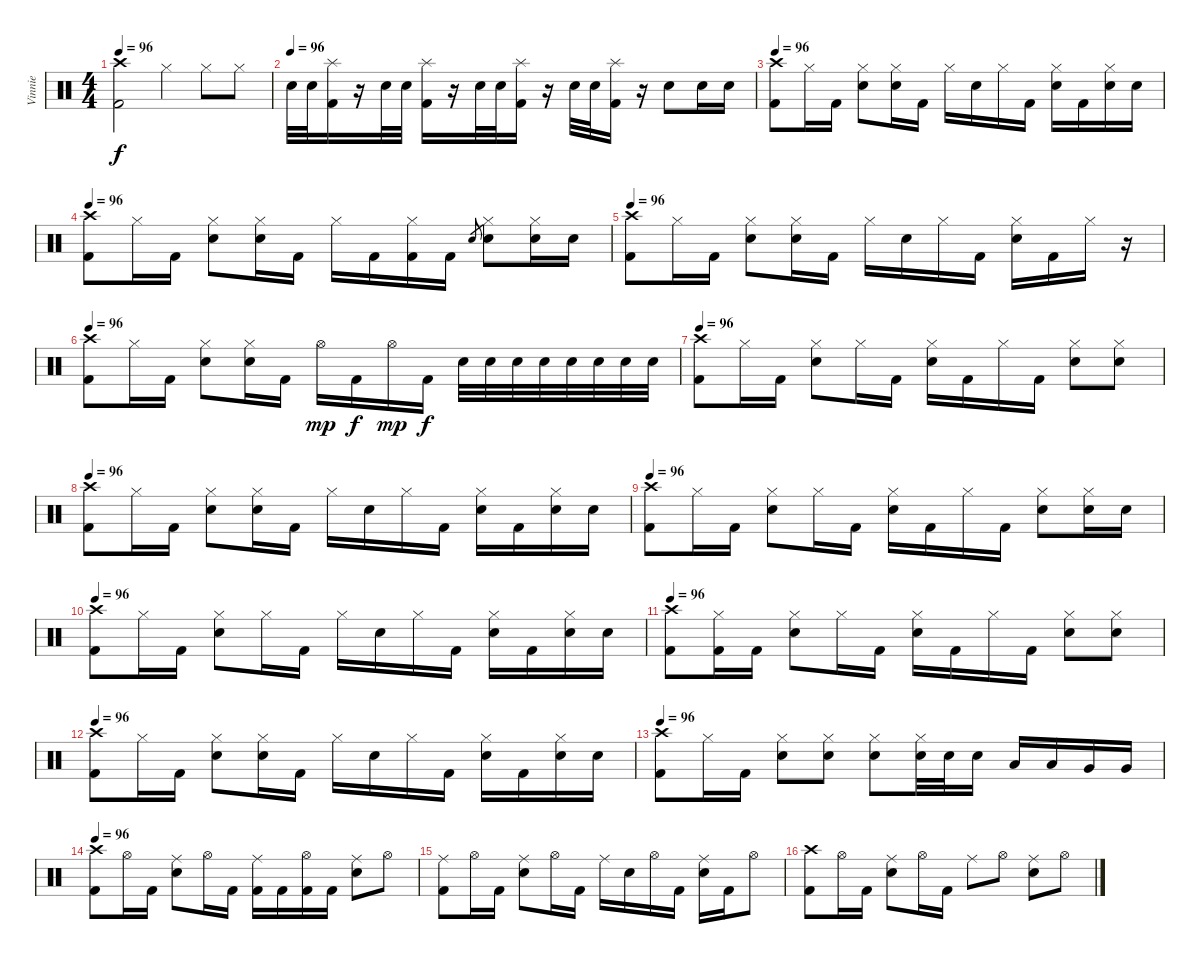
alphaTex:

\track ("Vinnie" "Vinnie") {instrument percussion}
\staff {score}
\articulation defaults
\ts (4 4)
\tempo 96
\clef neutral
\ks c
("Crash high (hit)" "Kick (hit) 2").2{dy f} "Hi-Hat (closed)".4 "Hi-Hat (closed)".8 "Hi-Hat (closed)".8 |
\tempo (96)
"Electric Snare (hit)".32 "Electric Snare (hit)".32 ("Splash (hit)" "Kick (hit) 2").16 r.16 "Electric Snare (hit)".32 "Electric Snare (hit)".32 ("Splash (hit)" "Kick (hit) 2").16 r.16 "Electric Snare (hit)".32 "Electric Snare (hit)".32 ("Splash (hit)" "Kick (hit) 2").16 r.16 "Electric Snare (hit)".32 "Electric Snare (hit)".32 ("Splash (hit)" "Kick (hit) 2").16 r.16 "Electric Snare (hit)".8 "Electric Snare (hit)".16 "Electric Snare (hit)".16 |
\tempo 96
("Crash high (hit)" "Kick (hit) 2").8 "Hi-Hat (closed)".16 "Kick (hit) 2".16 ("Hi-Hat (closed)" "Electric Snare (hit)").8 ("Hi-Hat (closed)" "Electric Snare (hit)").16 "Kick (hit) 2".16 "Hi-Hat (closed)".16 "Electric Snare (hit)".16 "Hi-Hat (closed)".16 "Kick (hit) 2".16 ("Hi-Hat (closed)" "Electric Snare (hit)").16 "Kick (hit) 2".16 ("Hi-Hat (closed)" "Electric Snare (hit)").16 "Electric Snare (hit)".16 |
\tempo 96
("Crash high (hit)" "Kick (hit) 2").8 "Hi-Hat (closed)".16 "Kick (hit) 2".16 ("Hi-Hat (closed)" "Electric Snare (hit)").8 ("Hi-Hat (closed)" "Electric Snare (hit)").16 "Kick (hit) 2".16 "Hi-Hat (closed)".16 "Kick (hit) 2".16 ("Hi-Hat (closed)" "Kick (hit) 2").16 "Kick (hit) 2".16 "Electric Snare (hit)".8{gr} ("Hi-Hat (closed)" "Electric Snare (hit)").8 ("Hi-Hat (closed)" "Electric Snare (hit)").16 "Electric Snare (hit)".16 |
\tempo 96
("Crash high (hit)" "Kick (hit) 2").8 "Hi-Hat (closed)".16 "Kick (hit) 2".16 ("Hi-Hat (closed)" "Electric Snare (hit)").8 ("Hi-Hat (closed)" "Electric Snare (hit)").16 "Kick (hit) 2".16 "Hi-Hat (closed)".16 "Electric Snare (hit)".16 "Hi-Hat (closed)".16 "Kick (hit) 2".16 ("Hi-Hat (closed)" "Electric Snare (hit)").16 "Kick (hit) 2".16 "Hi-Hat (closed)".16 r.16 |
\tempo 96
("Crash high (hit)" "Kick (hit) 2").8 "Hi-Hat (closed)".16 "Kick (hit) 2".16 ("Hi-Hat (closed)" "Electric Snare (hit)").8 ("Hi-Hat (closed)" "Electric Snare (hit)").16 "Kick (hit) 2".16 "Hi-Hat (open)".16{dy mp} "Kick (hit) 2".16{dy f} "Hi-Hat (open)".16{dy mp} "Kick (hit) 2".16{dy f} "Electric Snare (hit)".32 "Electric Snare (hit)".32 "Electric Snare (hit)".32 "Electric Snare (hit)".32 "Electric Snare (hit)".32 "Electric Snare (hit)".32 "Electric Snare (hit)".32 "Electric Snare (hit)".32 |
\tempo 96
("Crash high (hit)" "Kick (hit) 2").8 "Hi-Hat (closed)".16 "Kick (hit) 2".16 ("Hi-Hat (closed)" "Electric Snare (hit)").8 "Hi-Hat (closed)".16 "Kick (hit) 2".16 ("Hi-Hat (closed)" "Electric Snare (hit)").16 "Kick (hit) 2".16 "Hi-Hat (closed)".16 "Kick (hit) 2".16 ("Hi-Hat (closed)" "Electric Snare (hit)").8 ("Hi-Hat (closed)" "Electric Snare (hit)").8 |
\tempo 96
("Crash high (hit)" "Kick (hit) 2").8 "Hi-Hat (closed)".16 "Kick (hit) 2".16 ("Hi-Hat (closed)" "Electric Snare (hit)").8 ("Hi-Hat (closed)" "Electric Snare (hit)").16 "Kick (hit) 2".16 "Hi-Hat (closed)".16 "Electric Snare (hit)".16 "Hi-Hat (closed)".16 "Kick (hit) 2".16 ("Hi-Hat (closed)" "Electric Snare (hit)").16 "Kick (hit) 2".16 ("Hi-Hat (closed)" "Electric Snare (hit)").16 "Electric Snare (hit)".16 |
\tempo 96
("Crash high (hit)" "Kick (hit) 2").8 "Hi-Hat (closed)".16 "Kick (hit) 2".16 ("Hi-Hat (closed)" "Electric Snare (hit)").8 "Hi-Hat (closed)".16 "Kick (hit) 2".16 ("Hi-Hat (closed)" "Electric Snare (hit)").16 "Kick (hit) 2".16 "Hi-Hat (closed)".16 "Kick (hit) 2".16 ("Hi-Hat (closed)" "Electric Snare (hit)").8 ("Hi-Hat (closed)" "Electric Snare (hit)").16 "Electric Snare (hit)".16 |
\tempo 96
("Crash high (hit)" "Kick (hit) 2").8 "Hi-Hat (closed)".16 "Kick (hit) 2".16 ("Hi-Hat (closed)" "Electric Snare (hit)").8 "Hi-Hat (closed)".16 "Kick (hit) 2".16 "Hi-Hat (closed)".16 "Electric Snare (hit)".16 "Hi-Hat (closed)".16 "Kick (hit) 2".16 ("Hi-Hat (closed)" "Electric Snare (hit)").16 "Kick (hit) 2".16 ("Hi-Hat (closed)" "Electric Snare (hit)").16 "Electric Snare (hit)".16 |
\tempo 96
("Crash high (hit)" "Kick (hit) 2").8 ("Hi-Hat (closed)" "Kick (hit) 2").16 "Kick (hit) 2".16 ("Hi-Hat (closed)" "Electric Snare (hit)").8 "Hi-Hat (closed)".16 "Kick (hit) 2".16 ("Hi-Hat (closed)" "Electric Snare (hit)").16 "Kick (hit) 2".16 "Hi-Hat (closed)".16 "Kick (hit) 2".16 ("Hi-Hat (closed)" "Electric Snare (hit)").8 ("Hi-Hat (closed)" "Electric Snare (hit)").8 |
\tempo 96
("Crash high (hit)" "Kick (hit) 2").8 "Hi-Hat (closed)".16 "Kick (hit) 2".16 ("Hi-Hat (closed)" "Electric Snare (hit)").8 ("Hi-Hat (closed)" "Electric Snare (hit)").16 "Kick (hit) 2".16 "Hi-Hat (closed)".16 "Electric Snare (hit)".16 "Hi-Hat (closed)".16 "Kick (hit) 2".16 ("Hi-Hat (closed)" "Electric Snare (hit)").16 "Kick (hit) 2".16 ("Hi-Hat (closed)" "Electric Snare (hit)").16 "Electric Snare (hit)".16 |
\tempo 96
("Crash high (hit)" "Kick (hit) 2").8 "Hi-Hat (closed)".16 "Kick (hit) 2".16 ("Hi-Hat (closed)" "Electric Snare (hit)").8 ("Hi-Hat (closed)" "Electric Snare (hit)").8 ("Hi-Hat (closed)" "Electric Snare (hit)").8 ("Hi-Hat (closed)" "Electric Snare (hit)").32 "Electric Snare (hit)".32 "Electric Snare (hit)".16 "Low Tom (hit)".16 "Low Tom (hit)".16 "Very Low Tom (hit)".16 "Very Low Tom (hit)".16 |
\tempo 96
("Crash high (hit)" "Kick (hit) 2").8 "Hi-Hat (open)".16 "Kick (hit) 2".16 ("Ride (middle)" "Electric Snare (hit)").8 "Hi-Hat (open)".16 "Kick (hit) 2".16 ("Ride (middle)" "Kick (hit) 2").16 "Kick (hit) 2".16 ("Hi-Hat (open)" "Kick (hit) 2").16 "Kick (hit) 2".16 ("Ride (middle)" "Electric Snare (hit)").8 "Hi-Hat (open)".8 |
("Ride (middle)" "Kick (hit) 2").8 "Hi-Hat (open)".16 "Kick (hit) 2".16 ("Ride (middle)" "Electric Snare (hit)").8 "Hi-Hat (open)".16 "Kick (hit) 2".16 "Ride (middle)".16 "Electric Snare (hit)".16 "Hi-Hat (open)".16 "Kick (hit) 2".16 ("Ride (middle)" "Electric Snare (hit)").16 "Kick (hit) 2".16 "Hi-Hat (open)".8 |
("Crash high (hit)" "Kick (hit) 2").8 "Hi-Hat (open)".16 "Kick (hit) 2".16 ("Ride (middle)" "Electric Snare (hit)").8 "Hi-Hat (open)".16 "Kick (hit) 2".16 "Ride (middle)".8 "Hi-Hat (open)".8 ("Ride (middle)" "Electric Snare (hit)").8 "Hi-Hat (open)".8
